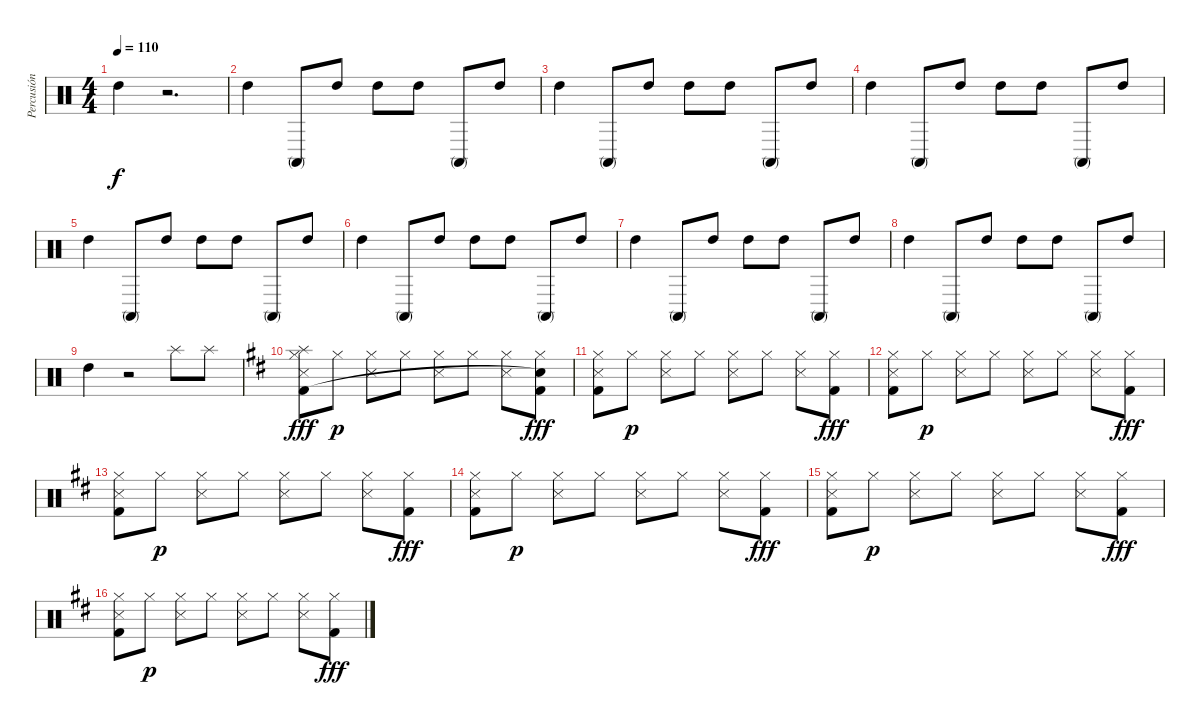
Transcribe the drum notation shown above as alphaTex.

\track ("Percusión" "Percusión") {instrument percussion}
\staff {score}
\articulation defaults
\ts (4 4)
\tempo 110
\clef neutral
\ks c "High Tom (hit)".4{dy f}
r.2{d} |
"High Tom (hit)".4 "Conga high (mute)".8 "High Tom (hit)".8 "High Tom (hit)".8 "High Tom (hit)".8 "Conga high (mute)".8 "High Tom (hit)".8 |
"High Tom (hit)".4 "Conga high (mute)".8 "High Tom (hit)".8 "High Tom (hit)".8 "High Tom (hit)".8 "Conga high (mute)".8 "High Tom (hit)".8 |
"High Tom (hit)".4 "Conga high (mute)".8 "High Tom (hit)".8 "High Tom (hit)".8 "High Tom (hit)".8 "Conga high (mute)".8 "High Tom (hit)".8 |
"High Tom (hit)".4 "Conga high (mute)".8 "High Tom (hit)".8 "High Tom (hit)".8 "High Tom (hit)".8 "Conga high (mute)".8 "High Tom (hit)".8 |
"High Tom (hit)".4 "Conga high (mute)".8 "High Tom (hit)".8 "High Tom (hit)".8 "High Tom (hit)".8 "Conga high (mute)".8 "High Tom (hit)".8 |
"High Tom (hit)".4 "Conga high (mute)".8 "High Tom (hit)".8 "High Tom (hit)".8 "High Tom (hit)".8 "Conga high (mute)".8 "High Tom (hit)".8 |
"High Tom (hit)".4 "Conga high (mute)".8 "High Tom (hit)".8 "High Tom (hit)".8 "High Tom (hit)".8 "Conga high (mute)".8 "High Tom (hit)".8 |
"High Tom (hit)".4 r.2 "Splash (hit)".8 "Splash (hit)".8 |
\ks d
("Hi-Hat (closed)" "Snare (side stick) 3" "Kick (hit) 2" "Splash (hit)").8{dy fff volume 8} "Hi-Hat (closed)".8{dy p} ("Hi-Hat (closed)" "Snare (side stick) 3").8 "Hi-Hat (closed)".8 ("Hi-Hat (closed)" "Snare (side stick) 3").8 "Hi-Hat (closed)".8 ("Hi-Hat (closed)" "Snare (side stick) 3").8 ("Hi-Hat (closed)" "Kick (hit) 2" "Snare (hit)"{t}).8{dy fff} |
("Hi-Hat (closed)" "Snare (side stick) 3" "Kick (hit) 2").8 "Hi-Hat (closed)".8{dy p} ("Hi-Hat (closed)" "Snare (side stick) 3").8 "Hi-Hat (closed)".8 ("Hi-Hat (closed)" "Snare (side stick) 3").8 "Hi-Hat (closed)".8 ("Hi-Hat (closed)" "Snare (side stick) 3").8 ("Hi-Hat (closed)" "Kick (hit) 2").8{dy fff} |
("Hi-Hat (closed)" "Snare (side stick) 3" "Kick (hit) 2").8 "Hi-Hat (closed)".8{dy p} ("Hi-Hat (closed)" "Snare (side stick) 3").8 "Hi-Hat (closed)".8 ("Hi-Hat (closed)" "Snare (side stick) 3").8 "Hi-Hat (closed)".8 ("Hi-Hat (closed)" "Snare (side stick) 3").8 ("Hi-Hat (closed)" "Kick (hit) 2").8{dy fff} |
("Hi-Hat (closed)" "Snare (side stick) 3" "Kick (hit) 2").8 "Hi-Hat (closed)".8{dy p} ("Hi-Hat (closed)" "Snare (side stick) 3").8 "Hi-Hat (closed)".8 ("Hi-Hat (closed)" "Snare (side stick) 3").8 "Hi-Hat (closed)".8 ("Hi-Hat (closed)" "Snare (side stick) 3").8 ("Hi-Hat (closed)" "Kick (hit) 2").8{dy fff} |
("Hi-Hat (closed)" "Snare (side stick) 3" "Kick (hit) 2").8 "Hi-Hat (closed)".8{dy p} ("Hi-Hat (closed)" "Snare (side stick) 3").8 "Hi-Hat (closed)".8 ("Hi-Hat (closed)" "Snare (side stick) 3").8 "Hi-Hat (closed)".8 ("Hi-Hat (closed)" "Snare (side stick) 3").8 ("Hi-Hat (closed)" "Kick (hit) 2").8{dy fff} |
("Hi-Hat (closed)" "Snare (side stick) 3" "Kick (hit) 2").8 "Hi-Hat (closed)".8{dy p} ("Hi-Hat (closed)" "Snare (side stick) 3").8 "Hi-Hat (closed)".8 ("Hi-Hat (closed)" "Snare (side stick) 3").8 "Hi-Hat (closed)".8 ("Hi-Hat (closed)" "Snare (side stick) 3").8 ("Hi-Hat (closed)" "Kick (hit) 2").8{dy fff} |
("Hi-Hat (closed)" "Snare (side stick) 3" "Kick (hit) 2").8 "Hi-Hat (closed)".8{dy p} ("Hi-Hat (closed)" "Snare (side stick) 3").8 "Hi-Hat (closed)".8 ("Hi-Hat (closed)" "Snare (side stick) 3").8 "Hi-Hat (closed)".8 ("Hi-Hat (closed)" "Snare (side stick) 3").8 ("Hi-Hat (closed)" "Kick (hit) 2").8{dy fff}
